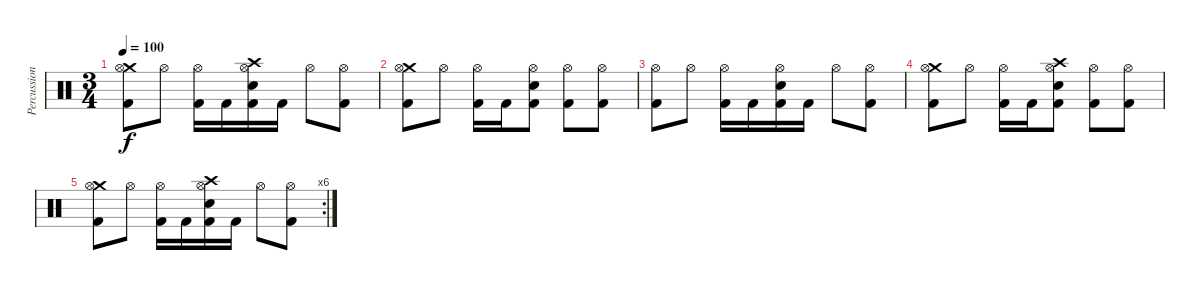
\track ("Percussion" "Percussion") {instrument percussion}
\staff {score}
\articulation defaults
\ts (3 4)
\tempo 100
\clef neutral
\ks c
("Crash medium (hit)" "Hi-Hat (open)" "Kick (hit) 2").8{dy f} "Hi-Hat (open)".8 ("Hi-Hat (open)" "Kick (hit) 2").16 "Kick (hit) 2".16 ("Crash high (hit)" "Hi-Hat (open)" "Electric Snare (hit)" "Kick (hit) 2").16 "Kick (hit) 2".16 "Hi-Hat (open)".8 ("Hi-Hat (open)" "Kick (hit) 2").8 |
("Crash medium (hit)" "Hi-Hat (open)" "Kick (hit) 2").8 "Hi-Hat (open)".8 ("Hi-Hat (open)" "Kick (hit) 2").16 "Kick (hit) 2".16 ("Hi-Hat (open)" "Electric Snare (hit)" "Kick (hit) 2").8 ("Hi-Hat (open)" "Kick (hit) 2").8 ("Hi-Hat (open)" "Kick (hit) 2").8 |
("Hi-Hat (open)" "Kick (hit) 2").8 "Hi-Hat (open)".8 ("Hi-Hat (open)" "Kick (hit) 2").16 "Kick (hit) 2".16 ("Hi-Hat (open)" "Electric Snare (hit)" "Kick (hit) 2").16 "Kick (hit) 2".16 "Hi-Hat (open)".8 ("Hi-Hat (open)" "Kick (hit) 2").8 |
("Crash medium (hit)" "Hi-Hat (open)" "Kick (hit) 2").8 "Hi-Hat (open)".8 ("Hi-Hat (open)" "Kick (hit) 2").16 "Kick (hit) 2".16 ("Crash high (hit)" "Hi-Hat (open)" "Electric Snare (hit)" "Kick (hit) 2").8 ("Hi-Hat (open)" "Kick (hit) 2").8 ("Hi-Hat (open)" "Kick (hit) 2").8 |
\rc 6
("Crash medium (hit)" "Hi-Hat (open)" "Kick (hit) 2").8 "Hi-Hat (open)".8 ("Hi-Hat (open)" "Kick (hit) 2").16 "Kick (hit) 2".16 ("Crash high (hit)" "Hi-Hat (open)" "Electric Snare (hit)" "Kick (hit) 2").16 "Kick (hit) 2".16 "Hi-Hat (open)".8 ("Hi-Hat (open)" "Kick (hit) 2").8
